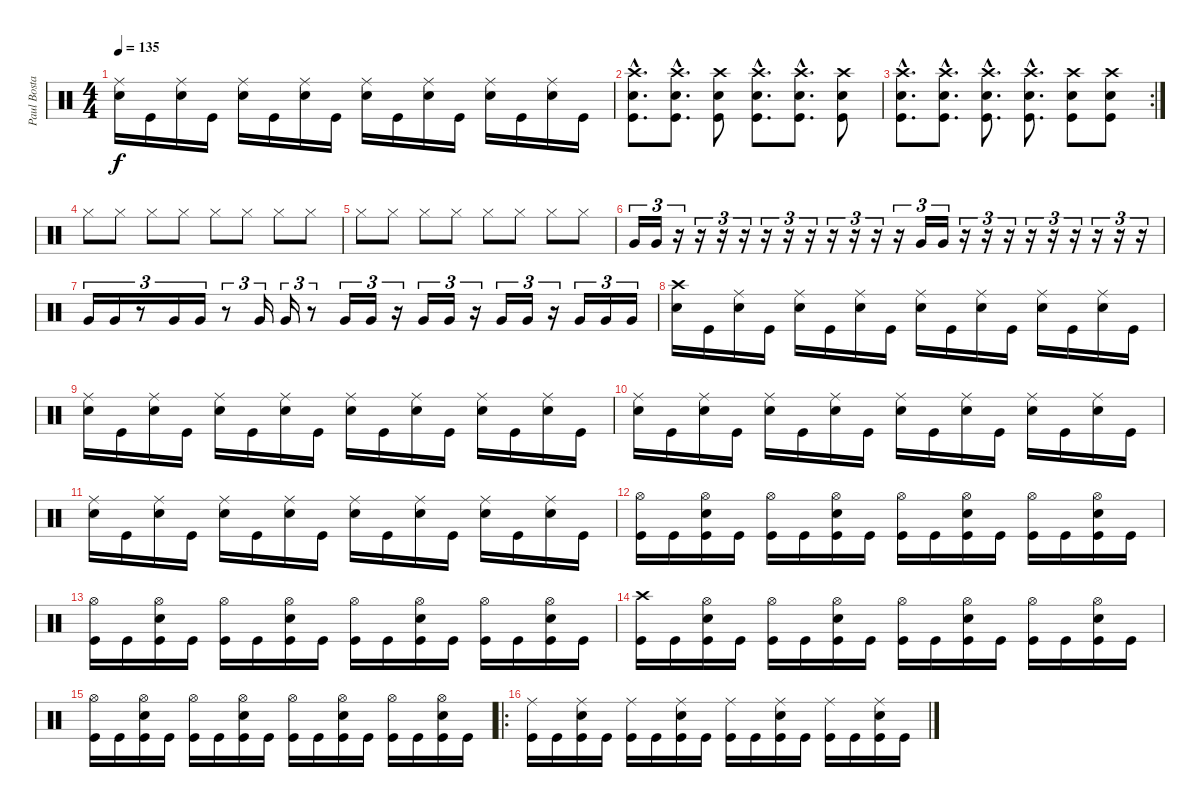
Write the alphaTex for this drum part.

\track ("Paul Bostaph" "Paul Bosta") {instrument percussion}
\staff {score}
\articulation defaults
\ts (4 4)
\tempo 135
\clef neutral
\ks c
("Ride (middle)" "Snare (hit) 2").16{dy f} "Kick (hit)".16 ("Ride (middle)" "Snare (hit) 2").16 "Kick (hit)".16 ("Ride (middle)" "Snare (hit) 2").16 "Kick (hit)".16 ("Ride (middle)" "Snare (hit) 2").16 "Kick (hit)".16 ("Ride (middle)" "Snare (hit) 2").16 "Kick (hit)".16 ("Ride (middle)" "Snare (hit) 2").16 "Kick (hit)".16 ("Ride (middle)" "Snare (hit) 2").16 "Kick (hit)".16 ("Ride (middle)" "Snare (hit) 2").16 "Kick (hit)".16 |
("Kick (hit)"{hac} "Snare (hit) 2"{hac} "Crash high (hit)"{hac}).8{d} ("Snare (hit) 2"{hac} "Kick (hit)"{hac} "Crash high (hit)"{hac}).8{d} ("Snare (hit) 2" "Crash high (hit)" "Kick (hit)").8 ("Snare (hit) 2"{hac} "Crash high (hit)"{hac} "Kick (hit)"{hac}).8{d} ("Snare (hit) 2"{hac} "Crash high (hit)"{hac} "Kick (hit)"{hac}).8{d} ("Snare (hit) 2" "Crash high (hit)" "Kick (hit)").8 |
\rc 2
("Kick (hit)"{hac} "Snare (hit) 2"{hac} "Crash high (hit)"{hac}).8{d} ("Snare (hit) 2"{hac} "Kick (hit)"{hac} "Crash high (hit)"{hac}).8{d} ("Snare (hit) 2"{hac} "Crash high (hit)"{hac} "Kick (hit)"{hac}).8{d} ("Snare (hit) 2"{hac} "Crash high (hit)"{hac} "Kick (hit)"{hac}).8{d} ("Snare (hit) 2" "Crash high (hit)" "Kick (hit)").8 ("Snare (hit) 2" "Crash high (hit)" "Kick (hit)").8 |
"Hi-Hat (closed)".8 "Hi-Hat (closed)".8 "Hi-Hat (closed)".8 "Hi-Hat (closed)".8 "Hi-Hat (closed)".8 "Hi-Hat (closed)".8 "Hi-Hat (closed)".8 "Hi-Hat (closed)".8 |
"Hi-Hat (closed)".8 "Hi-Hat (closed)".8 "Hi-Hat (closed)".8 "Hi-Hat (closed)".8 "Hi-Hat (closed)".8 "Hi-Hat (closed)".8 "Hi-Hat (closed)".8 "Hi-Hat (closed)".8 |
"Very Low Tom (hit)".16{tu (3 2)} "Very Low Tom (hit)".16{tu (3 2)} r.16{tu (3 2)} r.16{tu (3 2)} r.16{tu (3 2)} r.16{tu (3 2)} r.16{tu (3 2)} r.16{tu (3 2)} r.16{tu (3 2)} r.16{tu (3 2)} r.16{tu (3 2)} r.16{tu (3 2)} r.16{tu (3 2)} "Very Low Tom (hit)".16{tu (3 2)} "Very Low Tom (hit)".16{tu (3 2)} r.16{tu (3 2)} r.16{tu (3 2)} r.16{tu (3 2)} r.16{tu (3 2)} r.16{tu (3 2)} r.16{tu (3 2)} r.16{tu (3 2)} r.16{tu (3 2)} r.16{tu (3 2)} |
"Very Low Tom (hit)".16{tu (3 2)} "Very Low Tom (hit)".16{tu (3 2)} r.8{tu (3 2)} "Very Low Tom (hit)".16{tu (3 2)} "Very Low Tom (hit)".16{tu (3 2)} r.8{tu (3 2)} "Very Low Tom (hit)".16{tu (3 2)} "Very Low Tom (hit)".16{tu (3 2)} r.8{tu (3 2)} "Very Low Tom (hit)".16{tu (3 2)} "Very Low Tom (hit)".16{tu (3 2)} r.16{tu (3 2)} "Very Low Tom (hit)".16{tu (3 2)} "Very Low Tom (hit)".16{tu (3 2)} r.16{tu (3 2)} "Very Low Tom (hit)".16{tu (3 2)} "Very Low Tom (hit)".16{tu (3 2)} r.16{tu (3 2)} "Very Low Tom (hit)".16{tu (3 2)} "Very Low Tom (hit)".16{tu (3 2)} "Very Low Tom (hit)".16{tu (3 2)} |
("Crash high (hit)" "Snare (hit) 2").16 "Kick (hit)".16 ("Ride (middle)" "Snare (hit) 2").16 "Kick (hit)".16 ("Ride (middle)" "Snare (hit) 2").16 "Kick (hit)".16 ("Ride (middle)" "Snare (hit) 2").16 "Kick (hit)".16 ("Ride (middle)" "Snare (hit) 2").16 "Kick (hit)".16 ("Ride (middle)" "Snare (hit) 2").16 "Kick (hit)".16 ("Ride (middle)" "Snare (hit) 2").16 "Kick (hit)".16 ("Ride (middle)" "Snare (hit) 2").16 "Kick (hit)".16 |
("Ride (middle)" "Snare (hit) 2").16 "Kick (hit)".16 ("Ride (middle)" "Snare (hit) 2").16 "Kick (hit)".16 ("Ride (middle)" "Snare (hit) 2").16 "Kick (hit)".16 ("Ride (middle)" "Snare (hit) 2").16 "Kick (hit)".16 ("Ride (middle)" "Snare (hit) 2").16 "Kick (hit)".16 ("Ride (middle)" "Snare (hit) 2").16 "Kick (hit)".16 ("Ride (middle)" "Snare (hit) 2").16 "Kick (hit)".16 ("Ride (middle)" "Snare (hit) 2").16 "Kick (hit)".16 |
("Ride (middle)" "Snare (hit) 2").16 "Kick (hit)".16 ("Ride (middle)" "Snare (hit) 2").16 "Kick (hit)".16 ("Ride (middle)" "Snare (hit) 2").16 "Kick (hit)".16 ("Ride (middle)" "Snare (hit) 2").16 "Kick (hit)".16 ("Ride (middle)" "Snare (hit) 2").16 "Kick (hit)".16 ("Ride (middle)" "Snare (hit) 2").16 "Kick (hit)".16 ("Ride (middle)" "Snare (hit) 2").16 "Kick (hit)".16 ("Ride (middle)" "Snare (hit) 2").16 "Kick (hit)".16 |
("Ride (middle)" "Snare (hit) 2").16 "Kick (hit)".16 ("Ride (middle)" "Snare (hit) 2").16 "Kick (hit)".16 ("Ride (middle)" "Snare (hit) 2").16 "Kick (hit)".16 ("Ride (middle)" "Snare (hit) 2").16 "Kick (hit)".16 ("Ride (middle)" "Snare (hit) 2").16 "Kick (hit)".16 ("Ride (middle)" "Snare (hit) 2").16 "Kick (hit)".16 ("Ride (middle)" "Snare (hit) 2").16 "Kick (hit)".16 ("Ride (middle)" "Snare (hit) 2").16 "Kick (hit)".16 |
("Hi-Hat (open)" "Kick (hit)").16 "Kick (hit)".16 ("Hi-Hat (open)" "Snare (hit) 2" "Kick (hit)").16 "Kick (hit)".16 ("Hi-Hat (open)" "Kick (hit)").16 "Kick (hit)".16 ("Hi-Hat (open)" "Snare (hit) 2" "Kick (hit)").16 "Kick (hit)".16 ("Hi-Hat (open)" "Kick (hit)").16 "Kick (hit)".16 ("Hi-Hat (open)" "Snare (hit) 2" "Kick (hit)").16 "Kick (hit)".16 ("Hi-Hat (open)" "Kick (hit)").16 "Kick (hit)".16 ("Hi-Hat (open)" "Snare (hit) 2" "Kick (hit)").16 "Kick (hit)".16 |
("Hi-Hat (open)" "Kick (hit)").16 "Kick (hit)".16 ("Hi-Hat (open)" "Snare (hit) 2" "Kick (hit)").16 "Kick (hit)".16 ("Hi-Hat (open)" "Kick (hit)").16 "Kick (hit)".16 ("Hi-Hat (open)" "Snare (hit) 2" "Kick (hit)").16 "Kick (hit)".16 ("Hi-Hat (open)" "Kick (hit)").16 "Kick (hit)".16 ("Hi-Hat (open)" "Snare (hit) 2" "Kick (hit)").16 "Kick (hit)".16 ("Hi-Hat (open)" "Kick (hit)").16 "Kick (hit)".16 ("Hi-Hat (open)" "Snare (hit) 2" "Kick (hit)").16 "Kick (hit)".16 |
("Crash high (hit)" "Kick (hit)").16 "Kick (hit)".16 ("Hi-Hat (open)" "Snare (hit) 2" "Kick (hit)").16 "Kick (hit)".16 ("Hi-Hat (open)" "Kick (hit)").16 "Kick (hit)".16 ("Hi-Hat (open)" "Snare (hit) 2" "Kick (hit)").16 "Kick (hit)".16 ("Hi-Hat (open)" "Kick (hit)").16 "Kick (hit)".16 ("Hi-Hat (open)" "Snare (hit) 2" "Kick (hit)").16 "Kick (hit)".16 ("Hi-Hat (open)" "Kick (hit)").16 "Kick (hit)".16 ("Hi-Hat (open)" "Snare (hit) 2" "Kick (hit)").16 "Kick (hit)".16 |
("Hi-Hat (open)" "Kick (hit)").16 "Kick (hit)".16 ("Hi-Hat (open)" "Snare (hit) 2" "Kick (hit)").16 "Kick (hit)".16 ("Hi-Hat (open)" "Kick (hit)").16 "Kick (hit)".16 ("Hi-Hat (open)" "Snare (hit) 2" "Kick (hit)").16 "Kick (hit)".16 ("Hi-Hat (open)" "Kick (hit)").16 "Kick (hit)".16 ("Hi-Hat (open)" "Snare (hit) 2" "Kick (hit)").16 "Kick (hit)".16 ("Hi-Hat (open)" "Kick (hit)").16 "Kick (hit)".16 ("Hi-Hat (open)" "Snare (hit) 2" "Kick (hit)").16 "Kick (hit)".16 |
\ro
("Ride (middle)" "Kick (hit)").16 "Kick (hit)".16 ("Ride (middle)" "Snare (hit) 2" "Kick (hit)").16 "Kick (hit)".16 ("Ride (middle)" "Kick (hit)").16 "Kick (hit)".16 ("Ride (middle)" "Snare (hit) 2" "Kick (hit)").16 "Kick (hit)".16 ("Ride (middle)" "Kick (hit)").16 "Kick (hit)".16 ("Ride (middle)" "Snare (hit) 2" "Kick (hit)").16 "Kick (hit)".16 ("Ride (middle)" "Kick (hit)").16 "Kick (hit)".16 ("Ride (middle)" "Snare (hit) 2" "Kick (hit)").16 "Kick (hit)".16
